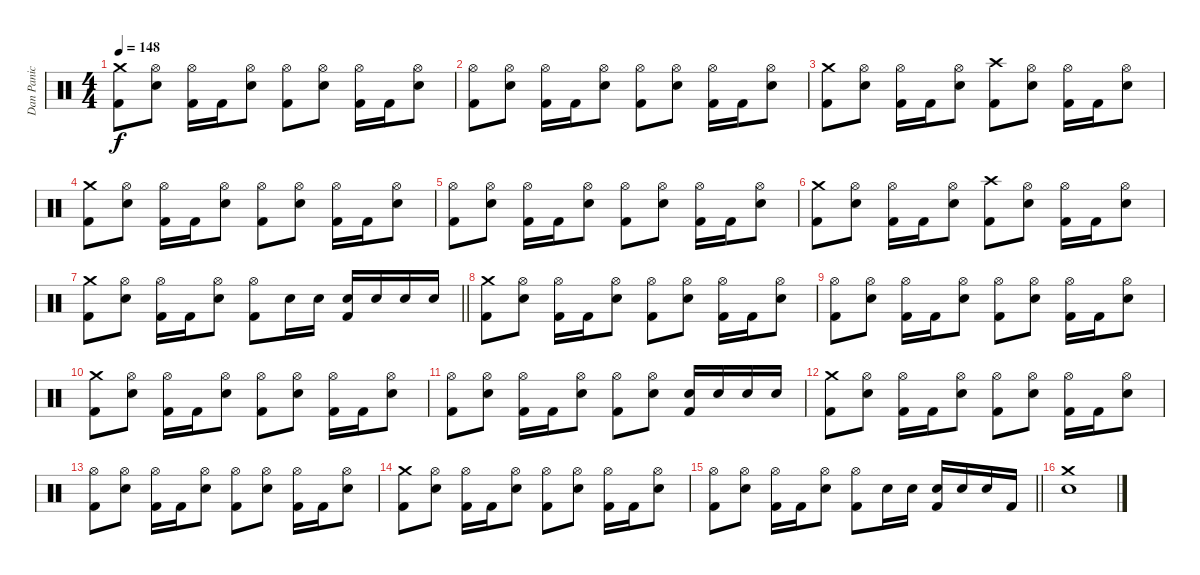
\track ("Dan Panic" "Dan Panic") {instrument percussion}
\staff {score}
\articulation defaults
\ts (4 4)
\tempo 148
\clef neutral
\ks c
("Crash medium (hit)" "Kick (hit) 2").8{dy f} ("Hi-Hat (open)" "Electric Snare (hit)").8 ("Hi-Hat (open)" "Kick (hit) 2").16 "Kick (hit) 2".16 ("Hi-Hat (open)" "Electric Snare (hit)").8 ("Hi-Hat (open)" "Kick (hit) 2").8 ("Hi-Hat (open)" "Electric Snare (hit)").8 ("Hi-Hat (open)" "Kick (hit) 2").16 "Kick (hit) 2".16 ("Hi-Hat (open)" "Electric Snare (hit)").8 |
("Hi-Hat (open)" "Kick (hit) 2").8 ("Hi-Hat (open)" "Electric Snare (hit)").8 ("Hi-Hat (open)" "Kick (hit) 2").16 "Kick (hit) 2".16 ("Hi-Hat (open)" "Electric Snare (hit)").8 ("Hi-Hat (open)" "Kick (hit) 2").8 ("Hi-Hat (open)" "Electric Snare (hit)").8 ("Hi-Hat (open)" "Kick (hit) 2").16 "Kick (hit) 2".16 ("Hi-Hat (open)" "Electric Snare (hit)").8 |
("Crash medium (hit)" "Kick (hit) 2").8 ("Hi-Hat (open)" "Electric Snare (hit)").8 ("Hi-Hat (open)" "Kick (hit) 2").16 "Kick (hit) 2".16 ("Hi-Hat (open)" "Electric Snare (hit)").8 ("Crash high (hit)" "Kick (hit) 2").8 ("Hi-Hat (open)" "Electric Snare (hit)").8 ("Hi-Hat (open)" "Kick (hit) 2").16 "Kick (hit) 2".16 ("Hi-Hat (open)" "Electric Snare (hit)").8 |
("Crash medium (hit)" "Kick (hit) 2").8 ("Hi-Hat (open)" "Electric Snare (hit)").8 ("Hi-Hat (open)" "Kick (hit) 2").16 "Kick (hit) 2".16 ("Hi-Hat (open)" "Electric Snare (hit)").8 ("Hi-Hat (open)" "Kick (hit) 2").8 ("Hi-Hat (open)" "Electric Snare (hit)").8 ("Hi-Hat (open)" "Kick (hit) 2").16 "Kick (hit) 2".16 ("Hi-Hat (open)" "Electric Snare (hit)").8 |
("Hi-Hat (open)" "Kick (hit) 2").8 ("Hi-Hat (open)" "Electric Snare (hit)").8 ("Hi-Hat (open)" "Kick (hit) 2").16 "Kick (hit) 2".16 ("Hi-Hat (open)" "Electric Snare (hit)").8 ("Hi-Hat (open)" "Kick (hit) 2").8 ("Hi-Hat (open)" "Electric Snare (hit)").8 ("Hi-Hat (open)" "Kick (hit) 2").16 "Kick (hit) 2".16 ("Hi-Hat (open)" "Electric Snare (hit)").8 |
("Crash medium (hit)" "Kick (hit) 2").8 ("Hi-Hat (open)" "Electric Snare (hit)").8 ("Hi-Hat (open)" "Kick (hit) 2").16 "Kick (hit) 2".16 ("Hi-Hat (open)" "Electric Snare (hit)").8 ("Crash high (hit)" "Kick (hit) 2").8 ("Hi-Hat (open)" "Electric Snare (hit)").8 ("Hi-Hat (open)" "Kick (hit) 2").16 "Kick (hit) 2".16 ("Hi-Hat (open)" "Electric Snare (hit)").8 |
\barLineRight lightlight
("Crash medium (hit)" "Kick (hit) 2").8 ("Hi-Hat (open)" "Electric Snare (hit)").8 ("Hi-Hat (open)" "Kick (hit) 2").16 "Kick (hit) 2".16 ("Hi-Hat (open)" "Electric Snare (hit)").8 ("Hi-Hat (open)" "Kick (hit) 2").8 "Electric Snare (hit)".16 "Electric Snare (hit)".16 ("Electric Snare (hit)" "Kick (hit) 2").16 "Electric Snare (hit)".16 "Electric Snare (hit)".16 "Electric Snare (hit)".16 |
("Crash medium (hit)" "Kick (hit) 2").8 ("Hi-Hat (open)" "Electric Snare (hit)").8 ("Hi-Hat (open)" "Kick (hit) 2").16 "Kick (hit) 2".16 ("Hi-Hat (open)" "Electric Snare (hit)").8 ("Hi-Hat (open)" "Kick (hit) 2").8 ("Hi-Hat (open)" "Electric Snare (hit)").8 ("Hi-Hat (open)" "Kick (hit) 2").16 "Kick (hit) 2".16 ("Hi-Hat (open)" "Electric Snare (hit)").8 |
("Hi-Hat (open)" "Kick (hit) 2").8 ("Hi-Hat (open)" "Electric Snare (hit)").8 ("Hi-Hat (open)" "Kick (hit) 2").16 "Kick (hit) 2".16 ("Hi-Hat (open)" "Electric Snare (hit)").8 ("Hi-Hat (open)" "Kick (hit) 2").8 ("Hi-Hat (open)" "Electric Snare (hit)").8 ("Hi-Hat (open)" "Kick (hit) 2").16 "Kick (hit) 2".16 ("Hi-Hat (open)" "Electric Snare (hit)").8 |
("Crash medium (hit)" "Kick (hit) 2").8 ("Hi-Hat (open)" "Electric Snare (hit)").8 ("Hi-Hat (open)" "Kick (hit) 2").16 "Kick (hit) 2".16 ("Hi-Hat (open)" "Electric Snare (hit)").8 ("Hi-Hat (open)" "Kick (hit) 2").8 ("Hi-Hat (open)" "Electric Snare (hit)").8 ("Hi-Hat (open)" "Kick (hit) 2").16 "Kick (hit) 2".16 ("Hi-Hat (open)" "Electric Snare (hit)").8 |
("Hi-Hat (open)" "Kick (hit) 2").8 ("Hi-Hat (open)" "Electric Snare (hit)").8 ("Hi-Hat (open)" "Kick (hit) 2").16 "Kick (hit) 2".16 ("Hi-Hat (open)" "Electric Snare (hit)").8 ("Hi-Hat (open)" "Kick (hit) 2").8 ("Hi-Hat (open)" "Electric Snare (hit)").8 ("Electric Snare (hit)" "Kick (hit) 2").16 "Electric Snare (hit)".16 "Electric Snare (hit)".16 "Electric Snare (hit)".16 |
("Crash medium (hit)" "Kick (hit) 2").8 ("Hi-Hat (open)" "Electric Snare (hit)").8 ("Hi-Hat (open)" "Kick (hit) 2").16 "Kick (hit) 2".16 ("Hi-Hat (open)" "Electric Snare (hit)").8 ("Hi-Hat (open)" "Kick (hit) 2").8 ("Hi-Hat (open)" "Electric Snare (hit)").8 ("Hi-Hat (open)" "Kick (hit) 2").16 "Kick (hit) 2".16 ("Hi-Hat (open)" "Electric Snare (hit)").8 |
("Hi-Hat (open)" "Kick (hit) 2").8 ("Hi-Hat (open)" "Electric Snare (hit)").8 ("Hi-Hat (open)" "Kick (hit) 2").16 "Kick (hit) 2".16 ("Hi-Hat (open)" "Electric Snare (hit)").8 ("Hi-Hat (open)" "Kick (hit) 2").8 ("Hi-Hat (open)" "Electric Snare (hit)").8 ("Hi-Hat (open)" "Kick (hit) 2").16 "Kick (hit) 2".16 ("Hi-Hat (open)" "Electric Snare (hit)").8 |
("Crash medium (hit)" "Kick (hit) 2").8 ("Hi-Hat (open)" "Electric Snare (hit)").8 ("Hi-Hat (open)" "Kick (hit) 2").16 "Kick (hit) 2".16 ("Hi-Hat (open)" "Electric Snare (hit)").8 ("Hi-Hat (open)" "Kick (hit) 2").8 ("Hi-Hat (open)" "Electric Snare (hit)").8 ("Hi-Hat (open)" "Kick (hit) 2").16 "Kick (hit) 2".16 ("Hi-Hat (open)" "Electric Snare (hit)").8 |
\barLineRight lightlight
("Hi-Hat (open)" "Kick (hit) 2").8 ("Hi-Hat (open)" "Electric Snare (hit)").8 ("Hi-Hat (open)" "Kick (hit) 2").16 "Kick (hit) 2".16 ("Hi-Hat (open)" "Electric Snare (hit)").8 ("Hi-Hat (open)" "Kick (hit) 2").8 "Electric Snare (hit)".16 "Electric Snare (hit)".16 ("Electric Snare (hit)" "Kick (hit) 2").16 "Electric Snare (hit)".16 "Electric Snare (hit)".16 "Kick (hit) 2".16 |
("Crash medium (hit)" "Electric Snare (hit)").1
